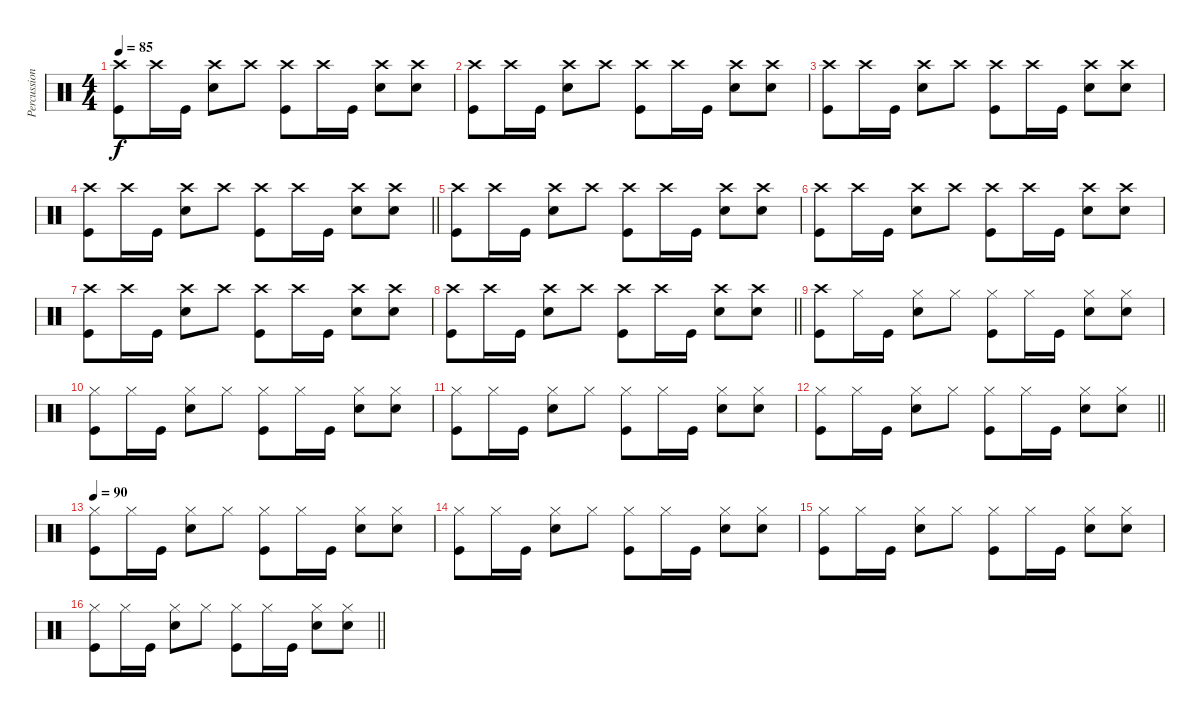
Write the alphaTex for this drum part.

\track ("Percussion" "Percussion") {instrument percussion}
\staff {score}
\articulation defaults
\ts (4 4)
\section ("" "")
\tempo 85
\clef neutral
\ks c
("Crash high (hit)" "Kick (hit)").8{dy f} "Crash high (hit)".16 "Kick (hit)".16 ("Crash high (hit)" "Snare (hit) 2").8 "Crash high (hit)".8 ("Crash high (hit)" "Kick (hit)").8 "Crash high (hit)".16 "Kick (hit)".16 ("Crash high (hit)" "Snare (hit) 2").8 ("Crash high (hit)" "Snare (hit) 2").8 |
("Crash high (hit)" "Kick (hit)").8 "Crash high (hit)".16 "Kick (hit)".16 ("Crash high (hit)" "Snare (hit) 2").8 "Crash high (hit)".8 ("Crash high (hit)" "Kick (hit)").8 "Crash high (hit)".16 "Kick (hit)".16 ("Crash high (hit)" "Snare (hit) 2").8 ("Crash high (hit)" "Snare (hit) 2").8 |
("Crash high (hit)" "Kick (hit)").8 "Crash high (hit)".16 "Kick (hit)".16 ("Crash high (hit)" "Snare (hit) 2").8 "Crash high (hit)".8 ("Crash high (hit)" "Kick (hit)").8 "Crash high (hit)".16 "Kick (hit)".16 ("Crash high (hit)" "Snare (hit) 2").8 ("Crash high (hit)" "Snare (hit) 2").8 |
\barLineRight lightlight
("Crash high (hit)" "Kick (hit)").8 "Crash high (hit)".16 "Kick (hit)".16 ("Crash high (hit)" "Snare (hit) 2").8 "Crash high (hit)".8 ("Crash high (hit)" "Kick (hit)").8 "Crash high (hit)".16 "Kick (hit)".16 ("Crash high (hit)" "Snare (hit) 2").8 ("Crash high (hit)" "Snare (hit) 2").8 |
("Crash high (hit)" "Kick (hit)").8 "Crash high (hit)".16 "Kick (hit)".16 ("Crash high (hit)" "Snare (hit) 2").8 "Crash high (hit)".8 ("Crash high (hit)" "Kick (hit)").8 "Crash high (hit)".16 "Kick (hit)".16 ("Crash high (hit)" "Snare (hit) 2").8 ("Crash high (hit)" "Snare (hit) 2").8 |
("Crash high (hit)" "Kick (hit)").8 "Crash high (hit)".16 "Kick (hit)".16 ("Crash high (hit)" "Snare (hit) 2").8 "Crash high (hit)".8 ("Crash high (hit)" "Kick (hit)").8 "Crash high (hit)".16 "Kick (hit)".16 ("Crash high (hit)" "Snare (hit) 2").8 ("Crash high (hit)" "Snare (hit) 2").8 |
("Crash high (hit)" "Kick (hit)").8 "Crash high (hit)".16 "Kick (hit)".16 ("Crash high (hit)" "Snare (hit) 2").8 "Crash high (hit)".8 ("Crash high (hit)" "Kick (hit)").8 "Crash high (hit)".16 "Kick (hit)".16 ("Crash high (hit)" "Snare (hit) 2").8 ("Crash high (hit)" "Snare (hit) 2").8 |
\barLineRight lightlight
("Crash high (hit)" "Kick (hit)").8 "Crash high (hit)".16 "Kick (hit)".16 ("Crash high (hit)" "Snare (hit) 2").8 "Crash high (hit)".8 ("Crash high (hit)" "Kick (hit)").8 "Crash high (hit)".16 "Kick (hit)".16 ("Crash high (hit)" "Snare (hit) 2").8 ("Crash high (hit)" "Snare (hit) 2").8 |
\section ("" "")
("Crash high (hit)" "Kick (hit)").8 "Hi-Hat (closed)".16 "Kick (hit)".16 ("Hi-Hat (closed)" "Snare (hit) 2").8 "Hi-Hat (closed)".8 ("Hi-Hat (closed)" "Kick (hit)").8 "Hi-Hat (closed)".16 "Kick (hit)".16 ("Hi-Hat (closed)" "Snare (hit) 2").8 ("Hi-Hat (closed)" "Snare (hit) 2").8 |
("Hi-Hat (closed)" "Kick (hit)").8 "Hi-Hat (closed)".16 "Kick (hit)".16 ("Hi-Hat (closed)" "Snare (hit) 2").8 "Hi-Hat (closed)".8 ("Hi-Hat (closed)" "Kick (hit)").8 "Hi-Hat (closed)".16 "Kick (hit)".16 ("Hi-Hat (closed)" "Snare (hit) 2").8 ("Hi-Hat (closed)" "Snare (hit) 2").8 |
("Hi-Hat (closed)" "Kick (hit)").8 "Hi-Hat (closed)".16 "Kick (hit)".16 ("Hi-Hat (closed)" "Snare (hit) 2").8 "Hi-Hat (closed)".8 ("Hi-Hat (closed)" "Kick (hit)").8 "Hi-Hat (closed)".16 "Kick (hit)".16 ("Hi-Hat (closed)" "Snare (hit) 2").8 ("Hi-Hat (closed)" "Snare (hit) 2").8 |
\barLineRight lightlight
("Hi-Hat (closed)" "Kick (hit)").8 "Hi-Hat (closed)".16 "Kick (hit)".16 ("Hi-Hat (closed)" "Snare (hit) 2").8 "Hi-Hat (closed)".8 ("Hi-Hat (closed)" "Kick (hit)").8 "Hi-Hat (closed)".16 "Kick (hit)".16 ("Hi-Hat (closed)" "Snare (hit) 2").8 ("Hi-Hat (closed)" "Snare (hit) 2").8 |
\tempo 90
("Hi-Hat (closed)" "Kick (hit)").8 "Hi-Hat (closed)".16 "Kick (hit)".16 ("Hi-Hat (closed)" "Snare (hit) 2").8 "Hi-Hat (closed)".8 ("Hi-Hat (closed)" "Kick (hit)").8 "Hi-Hat (closed)".16 "Kick (hit)".16 ("Hi-Hat (closed)" "Snare (hit) 2").8 ("Hi-Hat (closed)" "Snare (hit) 2").8 |
("Hi-Hat (closed)" "Kick (hit)").8 "Hi-Hat (closed)".16 "Kick (hit)".16 ("Hi-Hat (closed)" "Snare (hit) 2").8 "Hi-Hat (closed)".8 ("Hi-Hat (closed)" "Kick (hit)").8 "Hi-Hat (closed)".16 "Kick (hit)".16 ("Hi-Hat (closed)" "Snare (hit) 2").8 ("Hi-Hat (closed)" "Snare (hit) 2").8 |
("Hi-Hat (closed)" "Kick (hit)").8 "Hi-Hat (closed)".16 "Kick (hit)".16 ("Hi-Hat (closed)" "Snare (hit) 2").8 "Hi-Hat (closed)".8 ("Hi-Hat (closed)" "Kick (hit)").8 "Hi-Hat (closed)".16 "Kick (hit)".16 ("Hi-Hat (closed)" "Snare (hit) 2").8 ("Hi-Hat (closed)" "Snare (hit) 2").8 |
\barLineRight lightlight
("Hi-Hat (closed)" "Kick (hit)").8 "Hi-Hat (closed)".16 "Kick (hit)".16 ("Hi-Hat (closed)" "Snare (hit) 2").8 "Hi-Hat (closed)".8 ("Hi-Hat (closed)" "Kick (hit)").8 "Hi-Hat (closed)".16 "Kick (hit)".16 ("Hi-Hat (closed)" "Snare (hit) 2").8 ("Hi-Hat (closed)" "Snare (hit) 2").8
